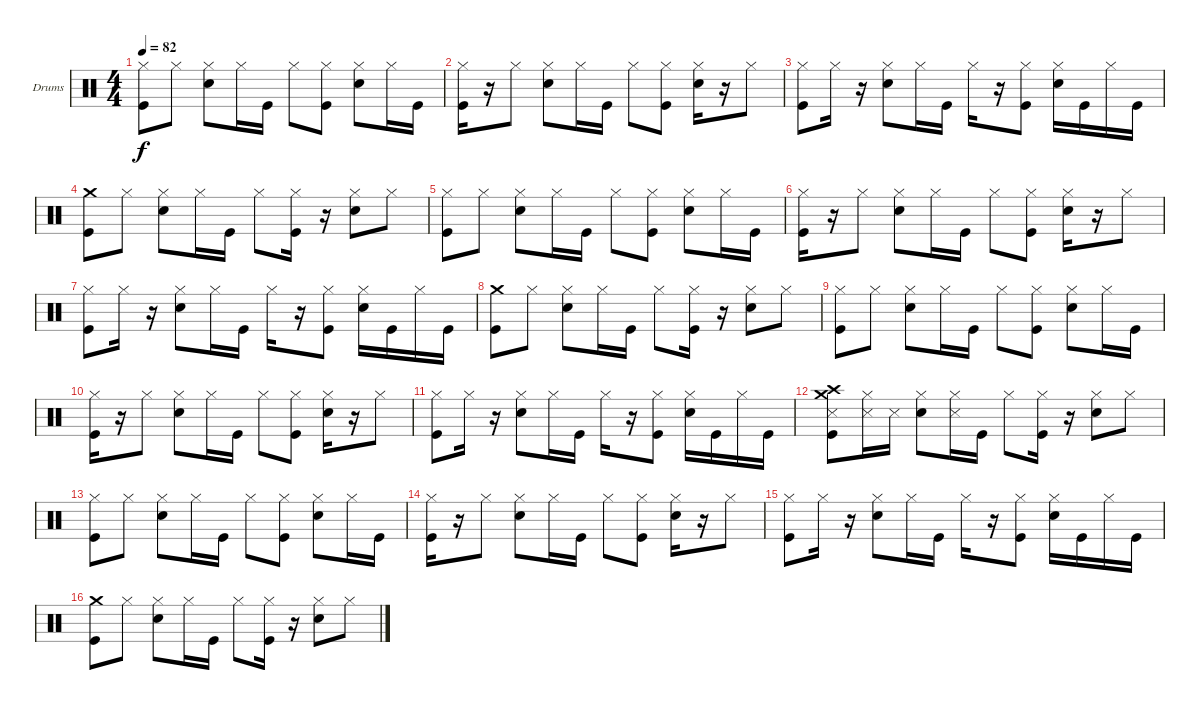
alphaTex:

\bracketExtendMode groupsimilarinstruments
\firstSystemTrackNameOrientation horizontal
\otherSystemsTrackNameOrientation horizontal
\track ("Drumkit" "Drums") {instrument percussion}
\staff {score}
\articulation defaults
\ts (4 4)
\tempo 82
\clef neutral
\ks c
("Kick (hit)" "Hi-Hat (closed)").8{dy f} "Hi-Hat (closed)".8 ("Hi-Hat (closed)" "Snare (hit) 2").8 "Hi-Hat (closed)".16 "Kick (hit)".16 "Hi-Hat (closed)".8 ("Kick (hit)" "Hi-Hat (closed)").8 ("Snare (hit) 2" "Hi-Hat (closed)").8 "Hi-Hat (closed)".16 "Kick (hit)".16 |
("Kick (hit)" "Hi-Hat (closed)").16 r.16 "Hi-Hat (closed)".8 ("Hi-Hat (closed)" "Snare (hit) 2").8 "Hi-Hat (closed)".16 "Kick (hit)".16 "Hi-Hat (closed)".8 ("Kick (hit)" "Hi-Hat (closed)").8 ("Snare (hit) 2" "Hi-Hat (closed)").16 r.16 "Hi-Hat (closed)".8 |
("Kick (hit)" "Hi-Hat (closed)").8 "Hi-Hat (closed)".16 r.16 ("Hi-Hat (closed)" "Snare (hit) 2").8 "Hi-Hat (closed)".16 "Kick (hit)".16 "Hi-Hat (closed)".16 r.16 ("Kick (hit)" "Hi-Hat (closed)").8 ("Snare (hit) 2" "Hi-Hat (closed)").16 "Kick (hit)".16 "Hi-Hat (closed)".16 "Kick (hit)".16 |
("Kick (hit)" "Crash medium (hit)").8 "Hi-Hat (closed)".8 ("Hi-Hat (closed)" "Snare (hit) 2").8 "Hi-Hat (closed)".16 "Kick (hit)".16 "Hi-Hat (closed)".8 ("Kick (hit)" "Hi-Hat (closed)").16 r.16 ("Snare (hit) 2" "Hi-Hat (closed)").8 "Hi-Hat (closed)".8 |
("Kick (hit)" "Hi-Hat (closed)").8 "Hi-Hat (closed)".8 ("Hi-Hat (closed)" "Snare (hit) 2").8 "Hi-Hat (closed)".16 "Kick (hit)".16 "Hi-Hat (closed)".8 ("Kick (hit)" "Hi-Hat (closed)").8 ("Snare (hit) 2" "Hi-Hat (closed)").8 "Hi-Hat (closed)".16 "Kick (hit)".16 |
("Kick (hit)" "Hi-Hat (closed)").16 r.16 "Hi-Hat (closed)".8 ("Hi-Hat (closed)" "Snare (hit) 2").8 "Hi-Hat (closed)".16 "Kick (hit)".16 "Hi-Hat (closed)".8 ("Kick (hit)" "Hi-Hat (closed)").8 ("Snare (hit) 2" "Hi-Hat (closed)").16 r.16 "Hi-Hat (closed)".8 |
("Kick (hit)" "Hi-Hat (closed)").8 "Hi-Hat (closed)".16 r.16 ("Hi-Hat (closed)" "Snare (hit) 2").8 "Hi-Hat (closed)".16 "Kick (hit)".16 "Hi-Hat (closed)".16 r.16 ("Kick (hit)" "Hi-Hat (closed)").8 ("Snare (hit) 2" "Hi-Hat (closed)").16 "Kick (hit)".16 "Hi-Hat (closed)".16 "Kick (hit)".16 |
("Kick (hit)" "Crash medium (hit)").8 "Hi-Hat (closed)".8 ("Hi-Hat (closed)" "Snare (hit) 2").8 "Hi-Hat (closed)".16 "Kick (hit)".16 "Hi-Hat (closed)".8 ("Kick (hit)" "Hi-Hat (closed)").16 r.16 ("Snare (hit) 2" "Hi-Hat (closed)").8 "Hi-Hat (closed)".8 |
("Kick (hit)" "Hi-Hat (closed)").8 "Hi-Hat (closed)".8 ("Hi-Hat (closed)" "Snare (hit) 2").8 "Hi-Hat (closed)".16 "Kick (hit)".16 "Hi-Hat (closed)".8 ("Kick (hit)" "Hi-Hat (closed)").8 ("Snare (hit) 2" "Hi-Hat (closed)").8 "Hi-Hat (closed)".16 "Kick (hit)".16 |
("Kick (hit)" "Hi-Hat (closed)").16 r.16 "Hi-Hat (closed)".8 ("Hi-Hat (closed)" "Snare (hit) 2").8 "Hi-Hat (closed)".16 "Kick (hit)".16 "Hi-Hat (closed)".8 ("Kick (hit)" "Hi-Hat (closed)").8 ("Snare (hit) 2" "Hi-Hat (closed)").16 r.16 "Hi-Hat (closed)".8 |
("Kick (hit)" "Hi-Hat (closed)").8 "Hi-Hat (closed)".16 r.16 ("Hi-Hat (closed)" "Snare (hit) 2").8 "Hi-Hat (closed)".16 "Kick (hit)".16 "Hi-Hat (closed)".16 r.16 ("Kick (hit)" "Hi-Hat (closed)").8 ("Snare (hit) 2" "Hi-Hat (closed)").16 "Kick (hit)".16 "Hi-Hat (closed)".16 "Kick (hit)".16 |
("Crash high (hit)" "Kick (hit)" "Crash medium (hit)" "Snare (side stick) 3").8 ("Hi-Hat (closed)" "Snare (side stick) 3").16 "Snare (side stick) 3".16 ("Hi-Hat (closed)" "Snare (hit) 2").8 ("Hi-Hat (closed)" "Snare (side stick) 3").16 "Kick (hit)".16 "Hi-Hat (closed)".8 ("Kick (hit)" "Hi-Hat (closed)").16 r.16 ("Snare (hit) 2" "Hi-Hat (closed)").8 "Hi-Hat (closed)".8 |
("Kick (hit)" "Hi-Hat (closed)").8 "Hi-Hat (closed)".8 ("Hi-Hat (closed)" "Snare (hit) 2").8 "Hi-Hat (closed)".16 "Kick (hit)".16 "Hi-Hat (closed)".8 ("Kick (hit)" "Hi-Hat (closed)").8 ("Snare (hit) 2" "Hi-Hat (closed)").8 "Hi-Hat (closed)".16 "Kick (hit)".16 |
("Kick (hit)" "Hi-Hat (closed)").16 r.16 "Hi-Hat (closed)".8 ("Hi-Hat (closed)" "Snare (hit) 2").8 "Hi-Hat (closed)".16 "Kick (hit)".16 "Hi-Hat (closed)".8 ("Kick (hit)" "Hi-Hat (closed)").8 ("Snare (hit) 2" "Hi-Hat (closed)").16 r.16 "Hi-Hat (closed)".8 |
("Kick (hit)" "Hi-Hat (closed)").8 "Hi-Hat (closed)".16 r.16 ("Hi-Hat (closed)" "Snare (hit) 2").8 "Hi-Hat (closed)".16 "Kick (hit)".16 "Hi-Hat (closed)".16 r.16 ("Kick (hit)" "Hi-Hat (closed)").8 ("Snare (hit) 2" "Hi-Hat (closed)").16 "Kick (hit)".16 "Hi-Hat (closed)".16 "Kick (hit)".16 |
("Kick (hit)" "Crash medium (hit)").8 "Hi-Hat (closed)".8 ("Hi-Hat (closed)" "Snare (hit) 2").8 "Hi-Hat (closed)".16 "Kick (hit)".16 "Hi-Hat (closed)".8 ("Kick (hit)" "Hi-Hat (closed)").16 r.16 ("Snare (hit) 2" "Hi-Hat (closed)").8 "Hi-Hat (closed)".8
